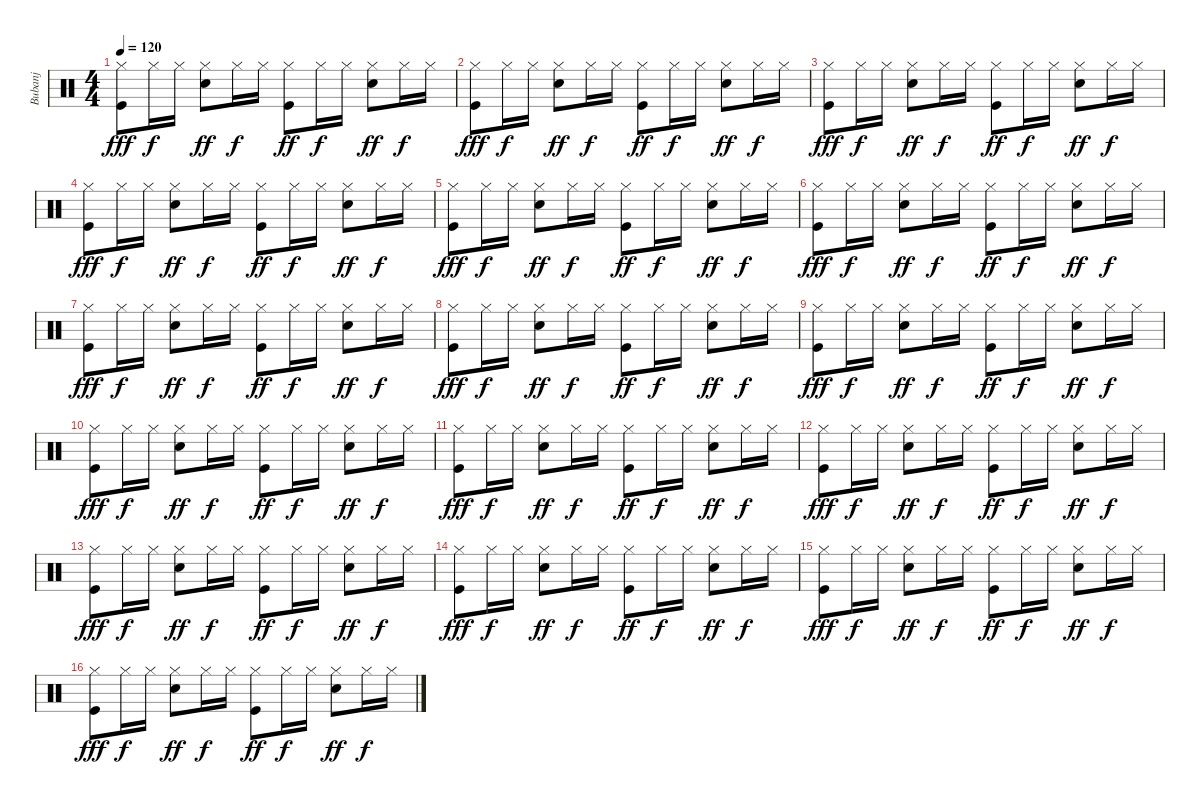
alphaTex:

\track ("Bubanj" "Bubanj") {instrument percussion}
\staff {score}
\articulation defaults
\ts (4 4)
\tempo 120
\clef neutral
\ks c
("Kick (hit)" "Hi-Hat (closed)").8{dy fff} "Hi-Hat (closed)".16{dy f} "Hi-Hat (closed)".16 ("Electric Snare (hit)" "Hi-Hat (closed)").8{dy ff} "Hi-Hat (closed)".16{dy f} "Hi-Hat (closed)".16 ("Kick (hit)" "Hi-Hat (closed)").8{dy ff} "Hi-Hat (closed)".16{dy f} "Hi-Hat (closed)".16 ("Electric Snare (hit)" "Hi-Hat (closed)").8{dy ff} "Hi-Hat (closed)".16{dy f} "Hi-Hat (closed)".16 |
("Kick (hit)" "Hi-Hat (closed)").8{dy fff} "Hi-Hat (closed)".16{dy f} "Hi-Hat (closed)".16 ("Electric Snare (hit)" "Hi-Hat (closed)").8{dy ff} "Hi-Hat (closed)".16{dy f} "Hi-Hat (closed)".16 ("Kick (hit)" "Hi-Hat (closed)").8{dy ff} "Hi-Hat (closed)".16{dy f} "Hi-Hat (closed)".16 ("Electric Snare (hit)" "Hi-Hat (closed)").8{dy ff} "Hi-Hat (closed)".16{dy f} "Hi-Hat (closed)".16 |
("Kick (hit)" "Hi-Hat (closed)").8{dy fff} "Hi-Hat (closed)".16{dy f} "Hi-Hat (closed)".16 ("Electric Snare (hit)" "Hi-Hat (closed)").8{dy ff} "Hi-Hat (closed)".16{dy f} "Hi-Hat (closed)".16 ("Kick (hit)" "Hi-Hat (closed)").8{dy ff} "Hi-Hat (closed)".16{dy f} "Hi-Hat (closed)".16 ("Electric Snare (hit)" "Hi-Hat (closed)").8{dy ff} "Hi-Hat (closed)".16{dy f} "Hi-Hat (closed)".16 |
("Kick (hit)" "Hi-Hat (closed)").8{dy fff} "Hi-Hat (closed)".16{dy f} "Hi-Hat (closed)".16 ("Electric Snare (hit)" "Hi-Hat (closed)").8{dy ff} "Hi-Hat (closed)".16{dy f} "Hi-Hat (closed)".16 ("Kick (hit)" "Hi-Hat (closed)").8{dy ff} "Hi-Hat (closed)".16{dy f} "Hi-Hat (closed)".16 ("Electric Snare (hit)" "Hi-Hat (closed)").8{dy ff} "Hi-Hat (closed)".16{dy f} "Hi-Hat (closed)".16 |
("Kick (hit)" "Hi-Hat (closed)").8{dy fff} "Hi-Hat (closed)".16{dy f} "Hi-Hat (closed)".16 ("Electric Snare (hit)" "Hi-Hat (closed)").8{dy ff} "Hi-Hat (closed)".16{dy f} "Hi-Hat (closed)".16 ("Kick (hit)" "Hi-Hat (closed)").8{dy ff} "Hi-Hat (closed)".16{dy f} "Hi-Hat (closed)".16 ("Electric Snare (hit)" "Hi-Hat (closed)").8{dy ff} "Hi-Hat (closed)".16{dy f} "Hi-Hat (closed)".16 |
("Kick (hit)" "Hi-Hat (closed)").8{dy fff} "Hi-Hat (closed)".16{dy f} "Hi-Hat (closed)".16 ("Electric Snare (hit)" "Hi-Hat (closed)").8{dy ff} "Hi-Hat (closed)".16{dy f} "Hi-Hat (closed)".16 ("Kick (hit)" "Hi-Hat (closed)").8{dy ff} "Hi-Hat (closed)".16{dy f} "Hi-Hat (closed)".16 ("Electric Snare (hit)" "Hi-Hat (closed)").8{dy ff} "Hi-Hat (closed)".16{dy f} "Hi-Hat (closed)".16 |
("Kick (hit)" "Hi-Hat (closed)").8{dy fff} "Hi-Hat (closed)".16{dy f} "Hi-Hat (closed)".16 ("Electric Snare (hit)" "Hi-Hat (closed)").8{dy ff} "Hi-Hat (closed)".16{dy f} "Hi-Hat (closed)".16 ("Kick (hit)" "Hi-Hat (closed)").8{dy ff} "Hi-Hat (closed)".16{dy f} "Hi-Hat (closed)".16 ("Electric Snare (hit)" "Hi-Hat (closed)").8{dy ff} "Hi-Hat (closed)".16{dy f} "Hi-Hat (closed)".16 |
("Kick (hit)" "Hi-Hat (closed)").8{dy fff} "Hi-Hat (closed)".16{dy f} "Hi-Hat (closed)".16 ("Electric Snare (hit)" "Hi-Hat (closed)").8{dy ff} "Hi-Hat (closed)".16{dy f} "Hi-Hat (closed)".16 ("Kick (hit)" "Hi-Hat (closed)").8{dy ff} "Hi-Hat (closed)".16{dy f} "Hi-Hat (closed)".16 ("Electric Snare (hit)" "Hi-Hat (closed)").8{dy ff} "Hi-Hat (closed)".16{dy f} "Hi-Hat (closed)".16 |
("Kick (hit)" "Hi-Hat (closed)").8{dy fff} "Hi-Hat (closed)".16{dy f} "Hi-Hat (closed)".16 ("Electric Snare (hit)" "Hi-Hat (closed)").8{dy ff} "Hi-Hat (closed)".16{dy f} "Hi-Hat (closed)".16 ("Kick (hit)" "Hi-Hat (closed)").8{dy ff} "Hi-Hat (closed)".16{dy f} "Hi-Hat (closed)".16 ("Electric Snare (hit)" "Hi-Hat (closed)").8{dy ff} "Hi-Hat (closed)".16{dy f} "Hi-Hat (closed)".16 |
("Kick (hit)" "Hi-Hat (closed)").8{dy fff} "Hi-Hat (closed)".16{dy f} "Hi-Hat (closed)".16 ("Electric Snare (hit)" "Hi-Hat (closed)").8{dy ff} "Hi-Hat (closed)".16{dy f} "Hi-Hat (closed)".16 ("Kick (hit)" "Hi-Hat (closed)").8{dy ff} "Hi-Hat (closed)".16{dy f} "Hi-Hat (closed)".16 ("Electric Snare (hit)" "Hi-Hat (closed)").8{dy ff} "Hi-Hat (closed)".16{dy f} "Hi-Hat (closed)".16 |
("Kick (hit)" "Hi-Hat (closed)").8{dy fff} "Hi-Hat (closed)".16{dy f} "Hi-Hat (closed)".16 ("Electric Snare (hit)" "Hi-Hat (closed)").8{dy ff} "Hi-Hat (closed)".16{dy f} "Hi-Hat (closed)".16 ("Kick (hit)" "Hi-Hat (closed)").8{dy ff} "Hi-Hat (closed)".16{dy f} "Hi-Hat (closed)".16 ("Electric Snare (hit)" "Hi-Hat (closed)").8{dy ff} "Hi-Hat (closed)".16{dy f} "Hi-Hat (closed)".16 |
("Kick (hit)" "Hi-Hat (closed)").8{dy fff} "Hi-Hat (closed)".16{dy f} "Hi-Hat (closed)".16 ("Electric Snare (hit)" "Hi-Hat (closed)").8{dy ff} "Hi-Hat (closed)".16{dy f} "Hi-Hat (closed)".16 ("Kick (hit)" "Hi-Hat (closed)").8{dy ff} "Hi-Hat (closed)".16{dy f} "Hi-Hat (closed)".16 ("Electric Snare (hit)" "Hi-Hat (closed)").8{dy ff} "Hi-Hat (closed)".16{dy f} "Hi-Hat (closed)".16 |
("Kick (hit)" "Hi-Hat (closed)").8{dy fff} "Hi-Hat (closed)".16{dy f} "Hi-Hat (closed)".16 ("Electric Snare (hit)" "Hi-Hat (closed)").8{dy ff} "Hi-Hat (closed)".16{dy f} "Hi-Hat (closed)".16 ("Kick (hit)" "Hi-Hat (closed)").8{dy ff} "Hi-Hat (closed)".16{dy f} "Hi-Hat (closed)".16 ("Electric Snare (hit)" "Hi-Hat (closed)").8{dy ff} "Hi-Hat (closed)".16{dy f} "Hi-Hat (closed)".16 |
("Kick (hit)" "Hi-Hat (closed)").8{dy fff} "Hi-Hat (closed)".16{dy f} "Hi-Hat (closed)".16 ("Electric Snare (hit)" "Hi-Hat (closed)").8{dy ff} "Hi-Hat (closed)".16{dy f} "Hi-Hat (closed)".16 ("Kick (hit)" "Hi-Hat (closed)").8{dy ff} "Hi-Hat (closed)".16{dy f} "Hi-Hat (closed)".16 ("Electric Snare (hit)" "Hi-Hat (closed)").8{dy ff} "Hi-Hat (closed)".16{dy f} "Hi-Hat (closed)".16 |
("Kick (hit)" "Hi-Hat (closed)").8{dy fff} "Hi-Hat (closed)".16{dy f} "Hi-Hat (closed)".16 ("Electric Snare (hit)" "Hi-Hat (closed)").8{dy ff} "Hi-Hat (closed)".16{dy f} "Hi-Hat (closed)".16 ("Kick (hit)" "Hi-Hat (closed)").8{dy ff} "Hi-Hat (closed)".16{dy f} "Hi-Hat (closed)".16 ("Electric Snare (hit)" "Hi-Hat (closed)").8{dy ff} "Hi-Hat (closed)".16{dy f} "Hi-Hat (closed)".16 |
("Kick (hit)" "Hi-Hat (closed)").8{dy fff} "Hi-Hat (closed)".16{dy f} "Hi-Hat (closed)".16 ("Electric Snare (hit)" "Hi-Hat (closed)").8{dy ff} "Hi-Hat (closed)".16{dy f} "Hi-Hat (closed)".16 ("Kick (hit)" "Hi-Hat (closed)").8{dy ff} "Hi-Hat (closed)".16{dy f} "Hi-Hat (closed)".16 ("Electric Snare (hit)" "Hi-Hat (closed)").8{dy ff} "Hi-Hat (closed)".16{dy f} "Hi-Hat (closed)".16
